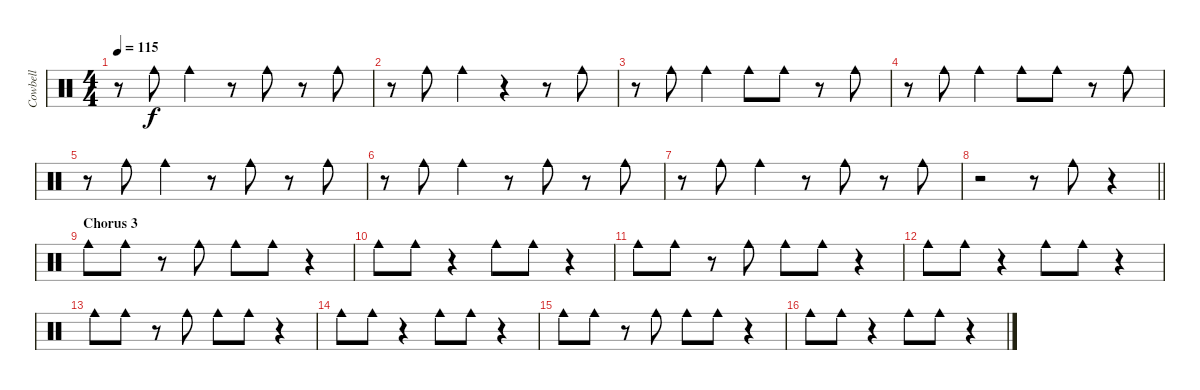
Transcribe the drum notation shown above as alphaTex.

\track ("Cowbell" "Cowbell") {instrument percussion}
\staff {score}
\articulation defaults
\ts (4 4)
\tempo 115
\clef neutral
\ks c
r.8{dy f} "Cowbell medium (hit)".8 "Cowbell medium (hit)".4 r.8 "Cowbell medium (hit)".8 r.8 "Cowbell medium (hit)".8 |
r.8 "Cowbell medium (hit)".8 "Cowbell medium (hit)".4 r.4 r.8 "Cowbell medium (hit)".8 |
r.8 "Cowbell medium (hit)".8 "Cowbell medium (hit)".4 "Cowbell medium (hit)".8 "Cowbell medium (hit)".8 r.8 "Cowbell medium (hit)".8 |
r.8 "Cowbell medium (hit)".8 "Cowbell medium (hit)".4 "Cowbell medium (hit)".8 "Cowbell medium (hit)".8 r.8 "Cowbell medium (hit)".8 |
r.8 "Cowbell medium (hit)".8 "Cowbell medium (hit)".4 r.8 "Cowbell medium (hit)".8 r.8 "Cowbell medium (hit)".8 |
r.8 "Cowbell medium (hit)".8 "Cowbell medium (hit)".4 r.8 "Cowbell medium (hit)".8 r.8 "Cowbell medium (hit)".8 |
r.8 "Cowbell medium (hit)".8 "Cowbell medium (hit)".4 r.8 "Cowbell medium (hit)".8 r.8 "Cowbell medium (hit)".8 |
\barLineRight lightlight
r.2 r.8 "Cowbell medium (hit)".8 r.4 |
\section ("" "Chorus 3")
"Cowbell medium (hit)".8 "Cowbell medium (hit)".8 r.8 "Cowbell medium (hit)".8 "Cowbell medium (hit)".8 "Cowbell medium (hit)".8 r.4 |
"Cowbell medium (hit)".8 "Cowbell medium (hit)".8 r.4 "Cowbell medium (hit)".8 "Cowbell medium (hit)".8 r.4 |
"Cowbell medium (hit)".8 "Cowbell medium (hit)".8 r.8 "Cowbell medium (hit)".8 "Cowbell medium (hit)".8 "Cowbell medium (hit)".8 r.4 |
"Cowbell medium (hit)".8 "Cowbell medium (hit)".8 r.4 "Cowbell medium (hit)".8 "Cowbell medium (hit)".8 r.4 |
"Cowbell medium (hit)".8 "Cowbell medium (hit)".8 r.8 "Cowbell medium (hit)".8 "Cowbell medium (hit)".8 "Cowbell medium (hit)".8 r.4 |
"Cowbell medium (hit)".8 "Cowbell medium (hit)".8 r.4 "Cowbell medium (hit)".8 "Cowbell medium (hit)".8 r.4 |
"Cowbell medium (hit)".8 "Cowbell medium (hit)".8 r.8 "Cowbell medium (hit)".8 "Cowbell medium (hit)".8 "Cowbell medium (hit)".8 r.4 |
"Cowbell medium (hit)".8 "Cowbell medium (hit)".8 r.4 "Cowbell medium (hit)".8 "Cowbell medium (hit)".8 r.4
